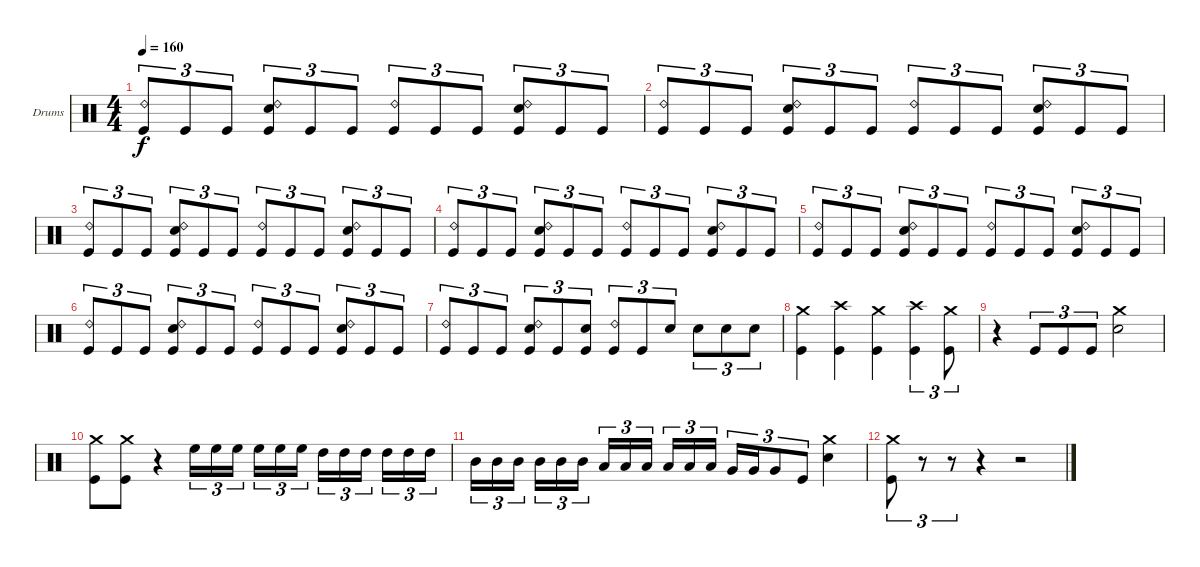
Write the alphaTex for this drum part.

\bracketExtendMode groupsimilarinstruments
\firstSystemTrackNameOrientation horizontal
\otherSystemsTrackNameOrientation horizontal
\track ("Drumkit" "Drums") {instrument percussion}
\staff {score}
\articulation defaults
\ts (4 4)
\tempo 160
\clef neutral
\ks c
("Ride (bell) 2" "Kick (hit)").8{tu (3 2) dy f} "Kick (hit)".8{tu (3 2)} "Kick (hit)".8{tu (3 2)} ("Ride (bell) 2" "Kick (hit)" "Snare (hit) 2").8{tu (3 2)} "Kick (hit)".8{tu (3 2)} "Kick (hit)".8{tu (3 2)} ("Ride (bell) 2" "Kick (hit)").8{tu (3 2)} "Kick (hit)".8{tu (3 2)} "Kick (hit)".8{tu (3 2)} ("Ride (bell) 2" "Kick (hit)" "Snare (hit) 2").8{tu (3 2)} "Kick (hit)".8{tu (3 2)} "Kick (hit)".8{tu (3 2)} |
("Ride (bell) 2" "Kick (hit)").8{tu (3 2)} "Kick (hit)".8{tu (3 2)} "Kick (hit)".8{tu (3 2)} ("Ride (bell) 2" "Kick (hit)" "Snare (hit) 2").8{tu (3 2)} "Kick (hit)".8{tu (3 2)} "Kick (hit)".8{tu (3 2)} ("Ride (bell) 2" "Kick (hit)").8{tu (3 2)} "Kick (hit)".8{tu (3 2)} "Kick (hit)".8{tu (3 2)} ("Ride (bell) 2" "Kick (hit)" "Snare (hit) 2").8{tu (3 2)} "Kick (hit)".8{tu (3 2)} "Kick (hit)".8{tu (3 2)} |
("Ride (bell) 2" "Kick (hit)").8{tu (3 2)} "Kick (hit)".8{tu (3 2)} "Kick (hit)".8{tu (3 2)} ("Ride (bell) 2" "Kick (hit)" "Snare (hit) 2").8{tu (3 2)} "Kick (hit)".8{tu (3 2)} "Kick (hit)".8{tu (3 2)} ("Ride (bell) 2" "Kick (hit)").8{tu (3 2)} "Kick (hit)".8{tu (3 2)} "Kick (hit)".8{tu (3 2)} ("Ride (bell) 2" "Kick (hit)" "Snare (hit) 2").8{tu (3 2)} "Kick (hit)".8{tu (3 2)} "Kick (hit)".8{tu (3 2)} |
("Ride (bell) 2" "Kick (hit)").8{tu (3 2)} "Kick (hit)".8{tu (3 2)} "Kick (hit)".8{tu (3 2)} ("Ride (bell) 2" "Kick (hit)" "Snare (hit) 2").8{tu (3 2)} "Kick (hit)".8{tu (3 2)} "Kick (hit)".8{tu (3 2)} ("Ride (bell) 2" "Kick (hit)").8{tu (3 2)} "Kick (hit)".8{tu (3 2)} "Kick (hit)".8{tu (3 2)} ("Ride (bell) 2" "Kick (hit)" "Snare (hit) 2").8{tu (3 2)} "Kick (hit)".8{tu (3 2)} "Kick (hit)".8{tu (3 2)} |
("Ride (bell) 2" "Kick (hit)").8{tu (3 2)} "Kick (hit)".8{tu (3 2)} "Kick (hit)".8{tu (3 2)} ("Ride (bell) 2" "Kick (hit)" "Snare (hit) 2").8{tu (3 2)} "Kick (hit)".8{tu (3 2)} "Kick (hit)".8{tu (3 2)} ("Ride (bell) 2" "Kick (hit)").8{tu (3 2)} "Kick (hit)".8{tu (3 2)} "Kick (hit)".8{tu (3 2)} ("Ride (bell) 2" "Kick (hit)" "Snare (hit) 2").8{tu (3 2)} "Kick (hit)".8{tu (3 2)} "Kick (hit)".8{tu (3 2)} |
("Ride (bell) 2" "Kick (hit)").8{tu (3 2)} "Kick (hit)".8{tu (3 2)} "Kick (hit)".8{tu (3 2)} ("Ride (bell) 2" "Kick (hit)" "Snare (hit) 2").8{tu (3 2)} "Kick (hit)".8{tu (3 2)} "Kick (hit)".8{tu (3 2)} ("Ride (bell) 2" "Kick (hit)").8{tu (3 2)} "Kick (hit)".8{tu (3 2)} "Kick (hit)".8{tu (3 2)} ("Ride (bell) 2" "Kick (hit)" "Snare (hit) 2").8{tu (3 2)} "Kick (hit)".8{tu (3 2)} "Kick (hit)".8{tu (3 2)} |
("Kick (hit)" "Ride (bell) 2").8{tu (3 2)} "Kick (hit)".8{tu (3 2)} "Kick (hit)".8{tu (3 2)} ("Kick (hit)" "Snare (hit) 2" "Ride (bell) 2").8{tu (3 2)} "Kick (hit)".8{tu (3 2)} ("Kick (hit)" "Snare (hit) 2").8{tu (3 2)} ("Kick (hit)" "Ride (bell) 2").8{tu (3 2)} "Kick (hit)".8{tu (3 2)} "Snare (hit) 2".8{tu (3 2)} "Snare (hit) 2".8{tu (3 2)} "Snare (hit) 2".8{tu (3 2)} "Snare (hit) 2".8{tu (3 2)} |
("Kick (hit)" "Crash medium (hit)").4 ("Kick (hit)" "Crash high (hit)").4 ("Kick (hit)" "Crash medium (hit)").4 ("Kick (hit)" "Crash high (hit)").4{tu (3 2)} ("Kick (hit)" "Crash medium (hit)").8{tu (3 2)} |
r.4 "Kick (hit)".8{tu (3 2)} "Kick (hit)".8{tu (3 2)} "Kick (hit)".8{tu (3 2)} ("Snare (hit) 2" "Crash medium (hit)").2 |
("Kick (hit)" "Crash medium (hit)").8 ("Kick (hit)" "Crash medium (hit)").8 r.4 "High Floor Tom (hit)".16{tu (3 2)} "High Floor Tom (hit)".16{tu (3 2)} "High Floor Tom (hit)".16{tu (3 2)} "High Floor Tom (hit)".16{tu (3 2)} "High Floor Tom (hit)".16{tu (3 2)} "High Floor Tom (hit)".16{tu (3 2)} "High Tom (hit)".16{tu (3 2)} "High Tom (hit)".16{tu (3 2)} "High Tom (hit)".16{tu (3 2)} "High Tom (hit)".16{tu (3 2)} "High Tom (hit)".16{tu (3 2)} "High Tom (hit)".16{tu (3 2)} |
"Mid Tom (hit)".16{tu (3 2)} "Mid Tom (hit)".16{tu (3 2)} "Mid Tom (hit)".16{tu (3 2)} "Mid Tom (hit)".16{tu (3 2)} "Mid Tom (hit)".16{tu (3 2)} "Mid Tom (hit)".16{tu (3 2)} "Low Tom (hit)".16{tu (3 2)} "Low Tom (hit)".16{tu (3 2)} "Low Tom (hit)".16{tu (3 2)} "Low Tom (hit)".16{tu (3 2)} "Low Tom (hit)".16{tu (3 2)} "Low Tom (hit)".16{tu (3 2)} "Very Low Tom (hit)".16{tu (3 2)} "Very Low Tom (hit)".16{tu (3 2)} "Very Low Tom (hit)".8{tu (3 2)} "Kick (hit)".8{tu (3 2)} ("Snare (hit) 2" "Crash medium (hit)").4 |
("Kick (hit)" "Crash medium (hit)").8{tu (3 2)} r.8{tu (3 2)} r.8{tu (3 2)} r.4 r.2
